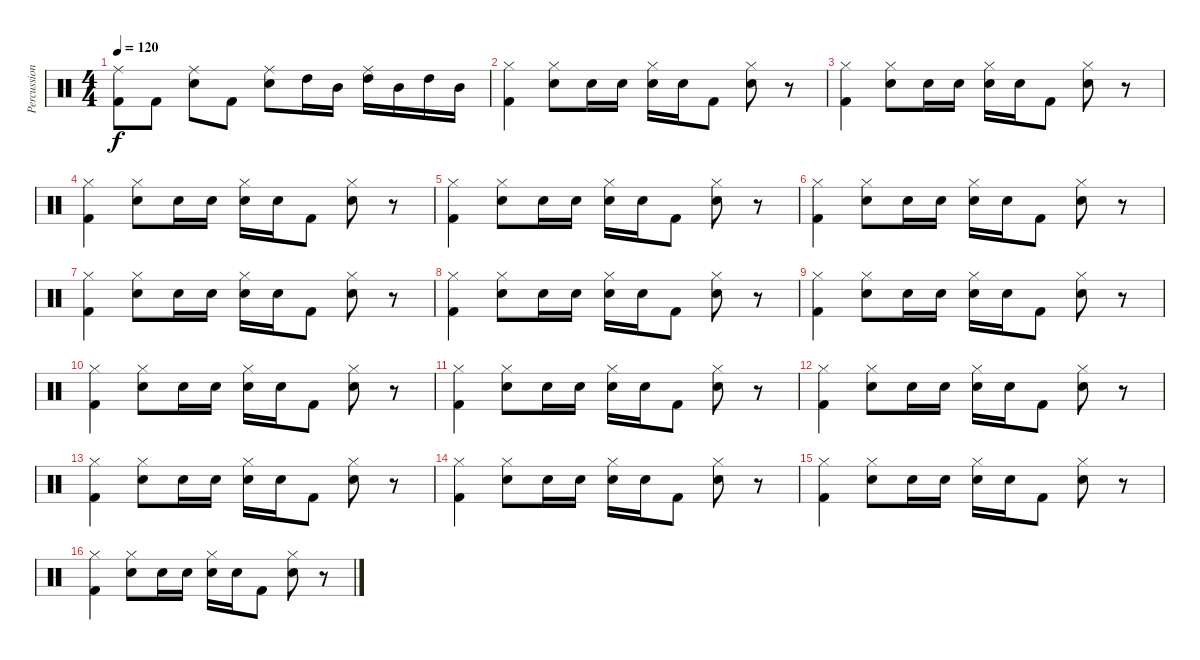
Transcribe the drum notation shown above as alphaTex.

\track ("Percussion - CJ" "Percussion") {instrument percussion}
\staff {score}
\articulation defaults
\ts (4 4)
\tempo 120
\clef neutral
\ks c
("Kick (hit) 2" "Ride (middle)").8{dy f} "Kick (hit) 2".8 ("Electric Snare (hit)" "Ride (middle)").8 "Kick (hit) 2".8 ("Electric Snare (hit)" "Ride (middle)").8 "High Tom (hit)".16 "Mid Tom (hit)".16 ("High Tom (hit)" "Ride (middle)").16 "Mid Tom (hit)".16 "High Tom (hit)".16 "Mid Tom (hit)".16 |
("Kick (hit) 2" "Hi-Hat (closed)").4 ("Snare (hit) 2" "Hi-Hat (closed)").8 "Snare (hit) 2".16 "Snare (hit) 2".16 ("Snare (hit) 2" "Hi-Hat (closed)").16 "Snare (hit) 2".16 "Kick (hit) 2".8 ("Snare (hit) 2" "Hi-Hat (closed)").8 r.8 |
("Kick (hit) 2" "Hi-Hat (closed)").4 ("Snare (hit) 2" "Hi-Hat (closed)").8 "Snare (hit) 2".16 "Snare (hit) 2".16 ("Snare (hit) 2" "Hi-Hat (closed)").16 "Snare (hit) 2".16 "Kick (hit) 2".8 ("Snare (hit) 2" "Hi-Hat (closed)").8 r.8 |
("Kick (hit) 2" "Hi-Hat (closed)").4 ("Snare (hit) 2" "Hi-Hat (closed)").8 "Snare (hit) 2".16 "Snare (hit) 2".16 ("Snare (hit) 2" "Hi-Hat (closed)").16 "Snare (hit) 2".16 "Kick (hit) 2".8 ("Snare (hit) 2" "Hi-Hat (closed)").8 r.8 |
("Kick (hit) 2" "Hi-Hat (closed)").4 ("Snare (hit) 2" "Hi-Hat (closed)").8 "Snare (hit) 2".16 "Snare (hit) 2".16 ("Snare (hit) 2" "Hi-Hat (closed)").16 "Snare (hit) 2".16 "Kick (hit) 2".8 ("Snare (hit) 2" "Hi-Hat (closed)").8 r.8 |
("Kick (hit) 2" "Hi-Hat (closed)").4 ("Snare (hit) 2" "Hi-Hat (closed)").8 "Snare (hit) 2".16 "Snare (hit) 2".16 ("Snare (hit) 2" "Hi-Hat (closed)").16 "Snare (hit) 2".16 "Kick (hit) 2".8 ("Snare (hit) 2" "Hi-Hat (closed)").8 r.8 |
("Kick (hit) 2" "Hi-Hat (closed)").4 ("Snare (hit) 2" "Hi-Hat (closed)").8 "Snare (hit) 2".16 "Snare (hit) 2".16 ("Snare (hit) 2" "Hi-Hat (closed)").16 "Snare (hit) 2".16 "Kick (hit) 2".8 ("Snare (hit) 2" "Hi-Hat (closed)").8 r.8 |
("Kick (hit) 2" "Hi-Hat (closed)").4 ("Snare (hit) 2" "Hi-Hat (closed)").8 "Snare (hit) 2".16 "Snare (hit) 2".16 ("Snare (hit) 2" "Hi-Hat (closed)").16 "Snare (hit) 2".16 "Kick (hit) 2".8 ("Snare (hit) 2" "Hi-Hat (closed)").8 r.8 |
("Kick (hit) 2" "Hi-Hat (closed)").4 ("Snare (hit) 2" "Hi-Hat (closed)").8 "Snare (hit) 2".16 "Snare (hit) 2".16 ("Snare (hit) 2" "Hi-Hat (closed)").16 "Snare (hit) 2".16 "Kick (hit) 2".8 ("Snare (hit) 2" "Hi-Hat (closed)").8 r.8 |
("Kick (hit) 2" "Hi-Hat (closed)").4 ("Snare (hit) 2" "Hi-Hat (closed)").8 "Snare (hit) 2".16 "Snare (hit) 2".16 ("Snare (hit) 2" "Hi-Hat (closed)").16 "Snare (hit) 2".16 "Kick (hit) 2".8 ("Snare (hit) 2" "Hi-Hat (closed)").8 r.8 |
("Kick (hit) 2" "Hi-Hat (closed)").4 ("Snare (hit) 2" "Hi-Hat (closed)").8 "Snare (hit) 2".16 "Snare (hit) 2".16 ("Snare (hit) 2" "Hi-Hat (closed)").16 "Snare (hit) 2".16 "Kick (hit) 2".8 ("Snare (hit) 2" "Hi-Hat (closed)").8 r.8 |
("Kick (hit) 2" "Hi-Hat (closed)").4 ("Snare (hit) 2" "Hi-Hat (closed)").8 "Snare (hit) 2".16 "Snare (hit) 2".16 ("Snare (hit) 2" "Hi-Hat (closed)").16 "Snare (hit) 2".16 "Kick (hit) 2".8 ("Snare (hit) 2" "Hi-Hat (closed)").8 r.8 |
("Kick (hit) 2" "Hi-Hat (closed)").4 ("Snare (hit) 2" "Hi-Hat (closed)").8 "Snare (hit) 2".16 "Snare (hit) 2".16 ("Snare (hit) 2" "Hi-Hat (closed)").16 "Snare (hit) 2".16 "Kick (hit) 2".8 ("Snare (hit) 2" "Hi-Hat (closed)").8 r.8 |
("Kick (hit) 2" "Hi-Hat (closed)").4 ("Snare (hit) 2" "Hi-Hat (closed)").8 "Snare (hit) 2".16 "Snare (hit) 2".16 ("Snare (hit) 2" "Hi-Hat (closed)").16 "Snare (hit) 2".16 "Kick (hit) 2".8 ("Snare (hit) 2" "Hi-Hat (closed)").8 r.8 |
("Kick (hit) 2" "Hi-Hat (closed)").4 ("Snare (hit) 2" "Hi-Hat (closed)").8 "Snare (hit) 2".16 "Snare (hit) 2".16 ("Snare (hit) 2" "Hi-Hat (closed)").16 "Snare (hit) 2".16 "Kick (hit) 2".8 ("Snare (hit) 2" "Hi-Hat (closed)").8 r.8 |
("Kick (hit) 2" "Hi-Hat (closed)").4 ("Snare (hit) 2" "Hi-Hat (closed)").8 "Snare (hit) 2".16 "Snare (hit) 2".16 ("Snare (hit) 2" "Hi-Hat (closed)").16 "Snare (hit) 2".16 "Kick (hit) 2".8 ("Snare (hit) 2" "Hi-Hat (closed)").8 r.8
